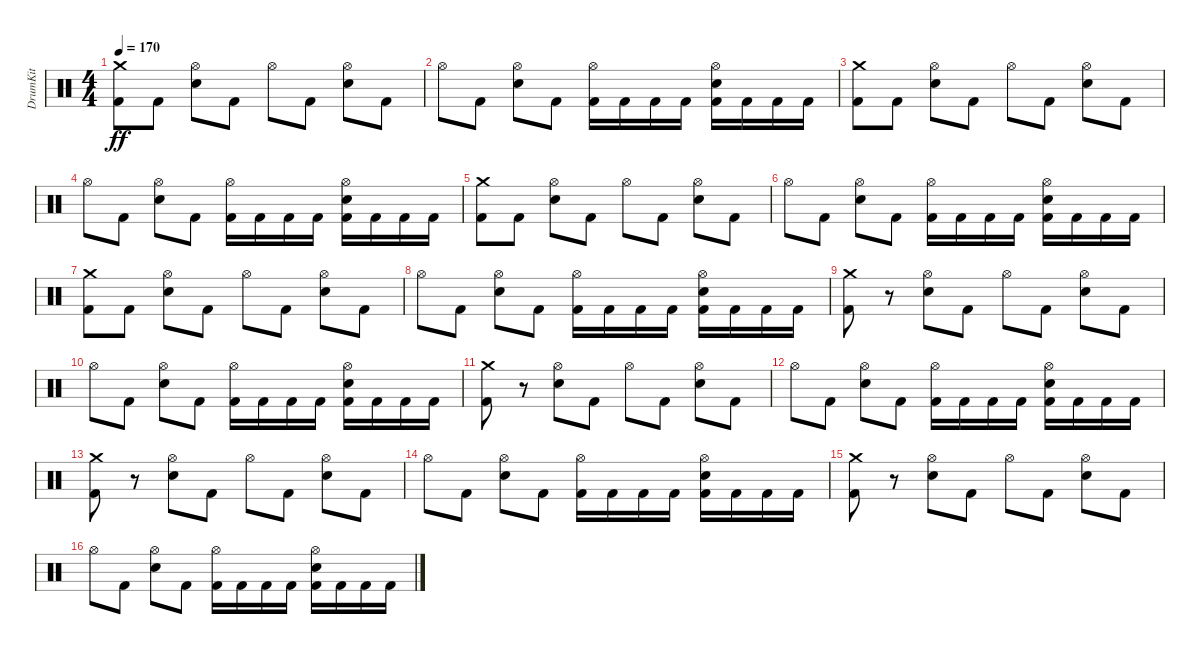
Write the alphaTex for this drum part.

\track ("DrumKit" "DrumKit") {instrument percussion}
\staff {score}
\articulation defaults
\ts (4 4)
\tempo 170
\clef neutral
\ks c
("Kick (hit) 2" "Crash medium (hit)").8{dy ff} "Kick (hit) 2".8 ("Snare (hit) 2" "Hi-Hat (open)").8 "Kick (hit) 2".8 "Hi-Hat (open)".8 "Kick (hit) 2".8 ("Snare (hit) 2" "Hi-Hat (open)").8 "Kick (hit) 2".8 |
"Hi-Hat (open)".8 "Kick (hit) 2".8 ("Snare (hit) 2" "Hi-Hat (open)").8 "Kick (hit) 2".8 ("Kick (hit) 2" "Hi-Hat (open)").16 "Kick (hit) 2".16 "Kick (hit) 2".16 "Kick (hit) 2".16 ("Kick (hit) 2" "Snare (hit) 2" "Hi-Hat (open)").16 "Kick (hit) 2".16 "Kick (hit) 2".16 "Kick (hit) 2".16 |
("Kick (hit) 2" "Crash medium (hit)").8 "Kick (hit) 2".8 ("Snare (hit) 2" "Hi-Hat (open)").8 "Kick (hit) 2".8 "Hi-Hat (open)".8 "Kick (hit) 2".8 ("Snare (hit) 2" "Hi-Hat (open)").8 "Kick (hit) 2".8 |
"Hi-Hat (open)".8 "Kick (hit) 2".8 ("Snare (hit) 2" "Hi-Hat (open)").8 "Kick (hit) 2".8 ("Kick (hit) 2" "Hi-Hat (open)").16 "Kick (hit) 2".16 "Kick (hit) 2".16 "Kick (hit) 2".16 ("Kick (hit) 2" "Snare (hit) 2" "Hi-Hat (open)").16 "Kick (hit) 2".16 "Kick (hit) 2".16 "Kick (hit) 2".16 |
("Kick (hit) 2" "Crash medium (hit)").8 "Kick (hit) 2".8 ("Snare (hit) 2" "Hi-Hat (open)").8 "Kick (hit) 2".8 "Hi-Hat (open)".8 "Kick (hit) 2".8 ("Snare (hit) 2" "Hi-Hat (open)").8 "Kick (hit) 2".8 |
"Hi-Hat (open)".8 "Kick (hit) 2".8 ("Snare (hit) 2" "Hi-Hat (open)").8 "Kick (hit) 2".8 ("Kick (hit) 2" "Hi-Hat (open)").16 "Kick (hit) 2".16 "Kick (hit) 2".16 "Kick (hit) 2".16 ("Kick (hit) 2" "Snare (hit) 2" "Hi-Hat (open)").16 "Kick (hit) 2".16 "Kick (hit) 2".16 "Kick (hit) 2".16 |
("Kick (hit) 2" "Crash medium (hit)").8 "Kick (hit) 2".8 ("Snare (hit) 2" "Hi-Hat (open)").8 "Kick (hit) 2".8 "Hi-Hat (open)".8 "Kick (hit) 2".8 ("Snare (hit) 2" "Hi-Hat (open)").8 "Kick (hit) 2".8 |
"Hi-Hat (open)".8 "Kick (hit) 2".8 ("Snare (hit) 2" "Hi-Hat (open)").8 "Kick (hit) 2".8 ("Kick (hit) 2" "Hi-Hat (open)").16 "Kick (hit) 2".16 "Kick (hit) 2".16 "Kick (hit) 2".16 ("Kick (hit) 2" "Snare (hit) 2" "Hi-Hat (open)").16 "Kick (hit) 2".16 "Kick (hit) 2".16 "Kick (hit) 2".16 |
("Kick (hit) 2" "Crash medium (hit)").8 r.8 ("Snare (hit) 2" "Hi-Hat (open)").8 "Kick (hit) 2".8 "Hi-Hat (open)".8 "Kick (hit) 2".8 ("Snare (hit) 2" "Hi-Hat (open)").8 "Kick (hit) 2".8 |
"Hi-Hat (open)".8 "Kick (hit) 2".8 ("Snare (hit) 2" "Hi-Hat (open)").8 "Kick (hit) 2".8 ("Kick (hit) 2" "Hi-Hat (open)").16 "Kick (hit) 2".16 "Kick (hit) 2".16 "Kick (hit) 2".16 ("Kick (hit) 2" "Snare (hit) 2" "Hi-Hat (open)").16 "Kick (hit) 2".16 "Kick (hit) 2".16 "Kick (hit) 2".16 |
("Kick (hit) 2" "Crash medium (hit)").8 r.8 ("Snare (hit) 2" "Hi-Hat (open)").8 "Kick (hit) 2".8 "Hi-Hat (open)".8 "Kick (hit) 2".8 ("Snare (hit) 2" "Hi-Hat (open)").8 "Kick (hit) 2".8 |
"Hi-Hat (open)".8 "Kick (hit) 2".8 ("Snare (hit) 2" "Hi-Hat (open)").8 "Kick (hit) 2".8 ("Kick (hit) 2" "Hi-Hat (open)").16 "Kick (hit) 2".16 "Kick (hit) 2".16 "Kick (hit) 2".16 ("Kick (hit) 2" "Snare (hit) 2" "Hi-Hat (open)").16 "Kick (hit) 2".16 "Kick (hit) 2".16 "Kick (hit) 2".16 |
("Kick (hit) 2" "Crash medium (hit)").8 r.8 ("Snare (hit) 2" "Hi-Hat (open)").8 "Kick (hit) 2".8 "Hi-Hat (open)".8 "Kick (hit) 2".8 ("Snare (hit) 2" "Hi-Hat (open)").8 "Kick (hit) 2".8 |
"Hi-Hat (open)".8 "Kick (hit) 2".8 ("Snare (hit) 2" "Hi-Hat (open)").8 "Kick (hit) 2".8 ("Kick (hit) 2" "Hi-Hat (open)").16 "Kick (hit) 2".16 "Kick (hit) 2".16 "Kick (hit) 2".16 ("Kick (hit) 2" "Snare (hit) 2" "Hi-Hat (open)").16 "Kick (hit) 2".16 "Kick (hit) 2".16 "Kick (hit) 2".16 |
("Kick (hit) 2" "Crash medium (hit)").8 r.8 ("Snare (hit) 2" "Hi-Hat (open)").8 "Kick (hit) 2".8 "Hi-Hat (open)".8 "Kick (hit) 2".8 ("Snare (hit) 2" "Hi-Hat (open)").8 "Kick (hit) 2".8 |
"Hi-Hat (open)".8 "Kick (hit) 2".8 ("Snare (hit) 2" "Hi-Hat (open)").8 "Kick (hit) 2".8 ("Kick (hit) 2" "Hi-Hat (open)").16 "Kick (hit) 2".16 "Kick (hit) 2".16 "Kick (hit) 2".16 ("Kick (hit) 2" "Snare (hit) 2" "Hi-Hat (open)").16 "Kick (hit) 2".16 "Kick (hit) 2".16 "Kick (hit) 2".16
